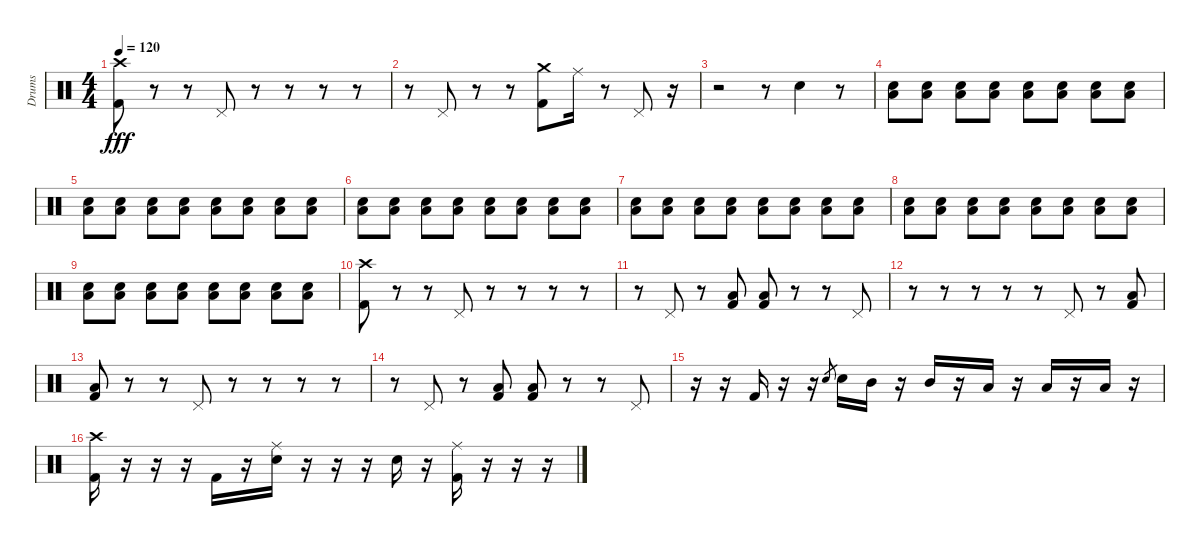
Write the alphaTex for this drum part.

\track ("Drums" "Drums") {instrument percussion}
\staff {score}
\articulation defaults
\ts (4 4)
\tempo 120
\clef neutral
\ks c
("Crash high (hit)" "Kick (hit) 2").8{dy fff} r.8 r.8 "Pedal Hi-Hat (hit)".8 r.8 r.8 r.8 r.8 |
r.8 "Pedal Hi-Hat (hit)".8 r.8 r.8 ("Crash medium (hit)" "Kick (hit) 2").8 "Ride (middle)".16 r.8 "Pedal Hi-Hat (hit)".8 r.16 |
r.2 r.8 "Snare (hit) 2".4 r.8 |
("Snare (hit) 2" "Low Tom (hit)").8 ("Snare (hit) 2" "Low Tom (hit)").8 ("Snare (hit) 2" "Low Tom (hit)").8 ("Snare (hit) 2" "Low Tom (hit)").8 ("Snare (hit) 2" "Low Tom (hit)").8 ("Snare (hit) 2" "Low Tom (hit)").8 ("Snare (hit) 2" "Low Tom (hit)").8 ("Snare (hit) 2" "Low Tom (hit)").8 |
("Snare (hit) 2" "Low Tom (hit)").8 ("Snare (hit) 2" "Low Tom (hit)").8 ("Snare (hit) 2" "Low Tom (hit)").8 ("Snare (hit) 2" "Low Tom (hit)").8 ("Snare (hit) 2" "Low Tom (hit)").8 ("Snare (hit) 2" "Low Tom (hit)").8 ("Snare (hit) 2" "Low Tom (hit)").8 ("Snare (hit) 2" "Low Tom (hit)").8 |
("Snare (hit) 2" "Low Tom (hit)").8 ("Snare (hit) 2" "Low Tom (hit)").8 ("Snare (hit) 2" "Low Tom (hit)").8 ("Snare (hit) 2" "Low Tom (hit)").8 ("Snare (hit) 2" "Low Tom (hit)").8 ("Snare (hit) 2" "Low Tom (hit)").8 ("Snare (hit) 2" "Low Tom (hit)").8 ("Snare (hit) 2" "Low Tom (hit)").8 |
("Snare (hit) 2" "Low Tom (hit)").8 ("Snare (hit) 2" "Low Tom (hit)").8 ("Snare (hit) 2" "Low Tom (hit)").8 ("Snare (hit) 2" "Low Tom (hit)").8 ("Snare (hit) 2" "Low Tom (hit)").8 ("Snare (hit) 2" "Low Tom (hit)").8 ("Snare (hit) 2" "Low Tom (hit)").8 ("Snare (hit) 2" "Low Tom (hit)").8 |
("Snare (hit) 2" "Low Tom (hit)").8 ("Snare (hit) 2" "Low Tom (hit)").8 ("Snare (hit) 2" "Low Tom (hit)").8 ("Snare (hit) 2" "Low Tom (hit)").8 ("Snare (hit) 2" "Low Tom (hit)").8 ("Snare (hit) 2" "Low Tom (hit)").8 ("Snare (hit) 2" "Low Tom (hit)").8 ("Snare (hit) 2" "Low Tom (hit)").8 |
("Snare (hit) 2" "Low Tom (hit)").8 ("Snare (hit) 2" "Low Tom (hit)").8 ("Snare (hit) 2" "Low Tom (hit)").8 ("Snare (hit) 2" "Low Tom (hit)").8 ("Snare (hit) 2" "Low Tom (hit)").8 ("Snare (hit) 2" "Low Tom (hit)").8 ("Snare (hit) 2" "Low Tom (hit)").8 ("Snare (hit) 2" "Low Tom (hit)").8 |
("Crash high (hit)" "Kick (hit) 2").8 r.8 r.8 "Pedal Hi-Hat (hit)".8 r.8 r.8 r.8 r.8 |
r.8 "Pedal Hi-Hat (hit)".8 r.8 ("Kick (hit) 2" "Low Tom (hit)").8 ("Kick (hit) 2" "Low Tom (hit)").8 r.8 r.8 "Pedal Hi-Hat (hit)".8 |
r.8 r.8 r.8 r.8 r.8 "Pedal Hi-Hat (hit)".8 r.8 ("Kick (hit) 2" "Low Tom (hit)").8 |
("Kick (hit) 2" "Low Tom (hit)").8 r.8 r.8 "Pedal Hi-Hat (hit)".8 r.8 r.8 r.8 r.8 |
r.8 "Pedal Hi-Hat (hit)".8 r.8 ("Kick (hit) 2" "Low Tom (hit)").8 ("Kick (hit) 2" "Low Tom (hit)").8 r.8 r.8 "Pedal Hi-Hat (hit)".8 |
r.16 r.16 "Kick (hit) 2".16 r.16 r.16 "Snare (hit) 2".8{gr} "Snare (hit) 2".16 "Mid Tom (hit)".16 r.16 "Mid Tom (hit)".16 r.16 "Low Tom (hit)".16 r.16 "Low Tom (hit)".16 r.16 "Low Tom (hit)".16 r.16 |
("Crash high (hit)" "Kick (hit) 2").16 r.16 r.16 r.16 "Kick (hit) 2".16 r.16 ("Ride (middle)" "Snare (hit) 2").16 r.16 r.16 r.16 "Snare (hit) 2".16 r.16 ("Ride (middle)" "Kick (hit) 2").16 r.16 r.16 r.16
